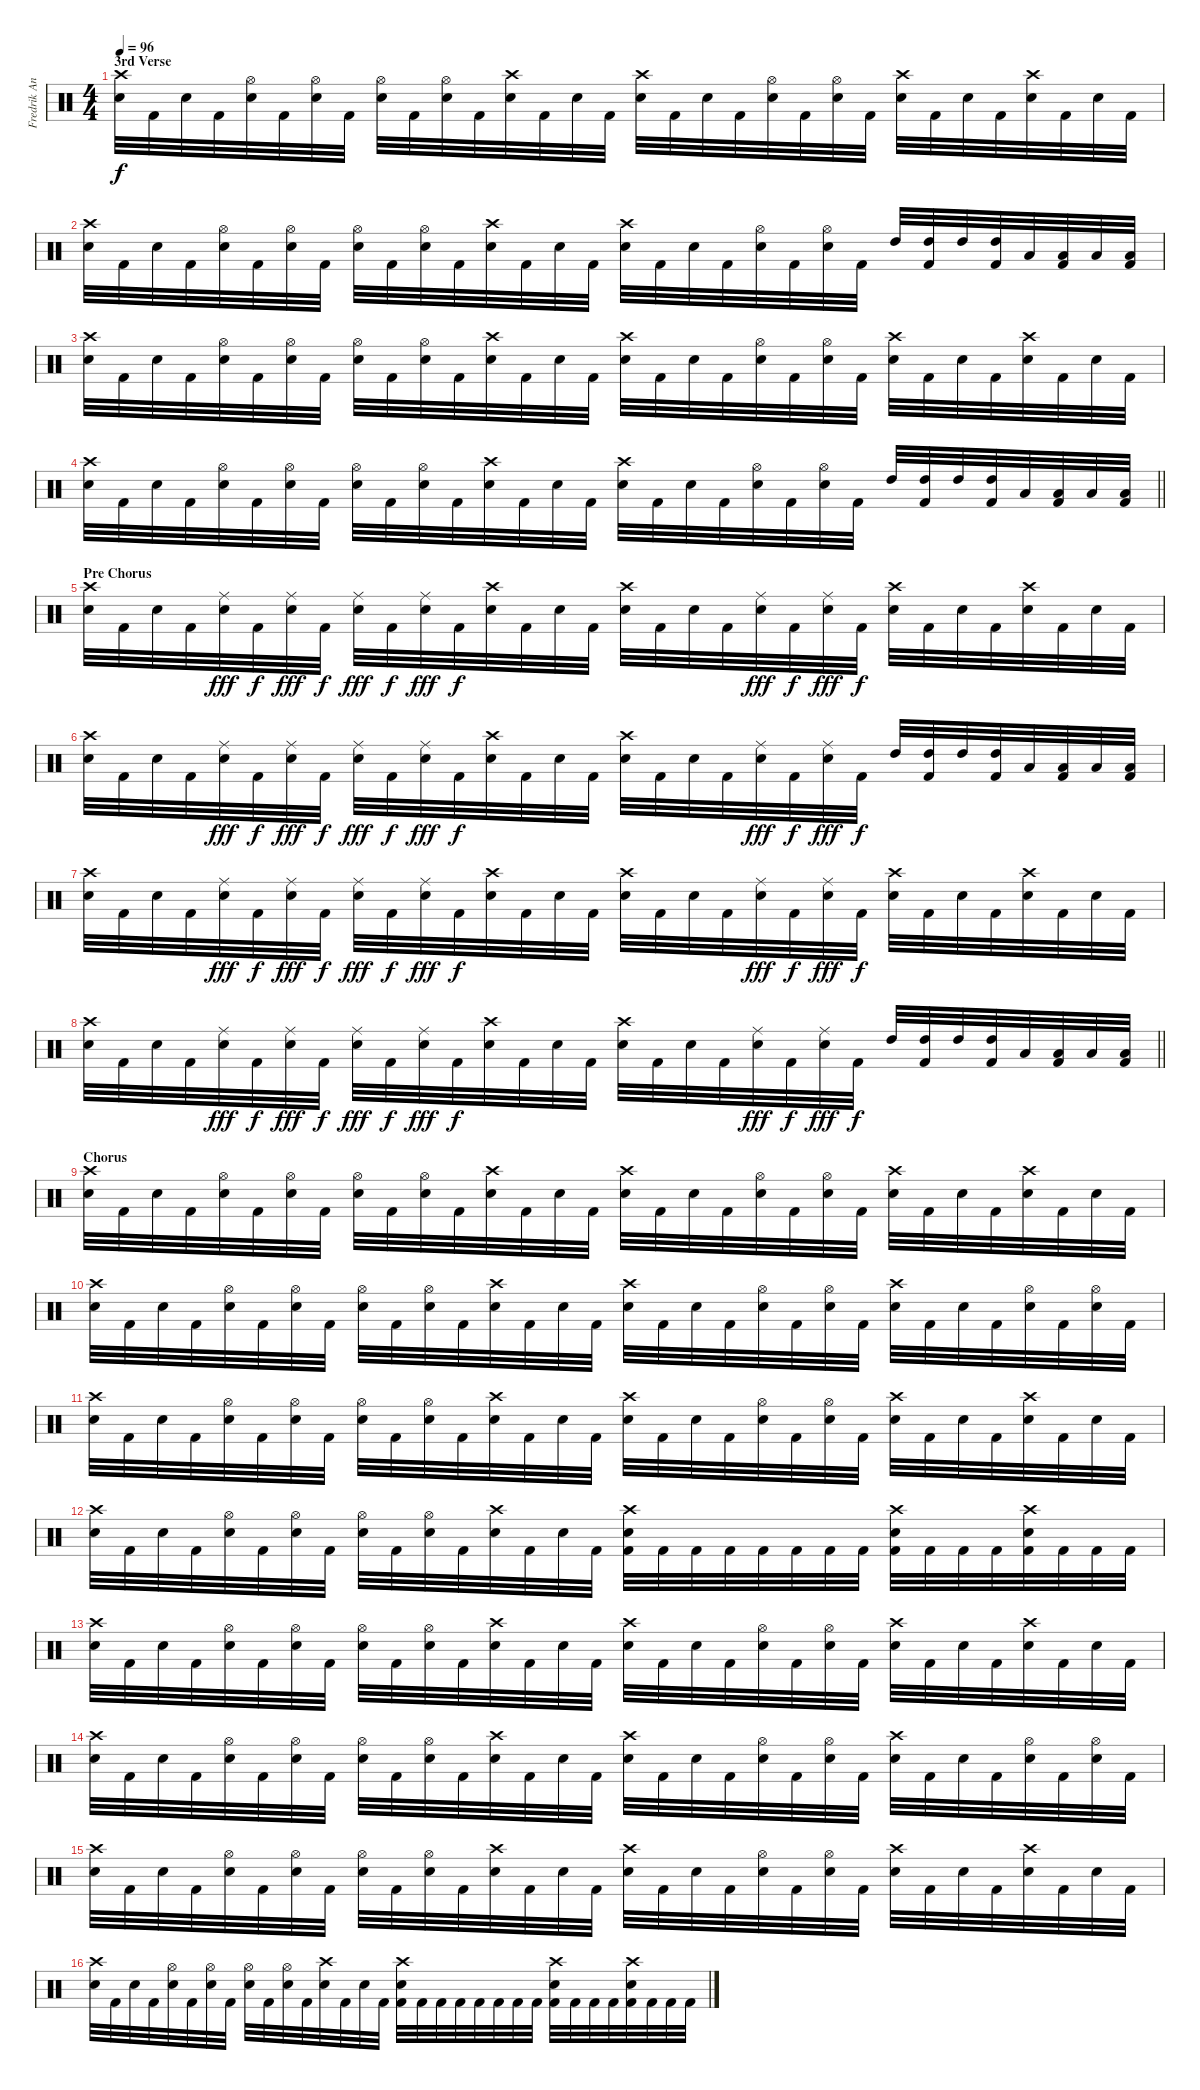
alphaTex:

\track ("Fredrik Andersson" "Fredrik An") {instrument percussion}
\staff {score}
\articulation defaults
\ts (4 4)
\section ("" "3rd Verse")
\tempo 96
\clef neutral
\ks c
("Crash high (hit)" "Snare (hit) 2").32{dy f} "Kick (hit) 2".32 "Snare (hit) 2".32 "Kick (hit) 2".32 ("Hi-Hat (open)" "Snare (hit) 2").32 "Kick (hit) 2".32 ("Hi-Hat (open)" "Snare (hit) 2").32 "Kick (hit) 2".32 ("Hi-Hat (open)" "Snare (hit) 2").32 "Kick (hit) 2".32 ("Hi-Hat (open)" "Snare (hit) 2").32 "Kick (hit) 2".32 ("Crash high (hit)" "Snare (hit) 2").32 "Kick (hit) 2".32 "Snare (hit) 2".32 "Kick (hit) 2".32 ("Crash high (hit)" "Snare (hit) 2").32 "Kick (hit) 2".32 "Snare (hit) 2".32 "Kick (hit) 2".32 ("Hi-Hat (open)" "Snare (hit) 2").32 "Kick (hit) 2".32 ("Hi-Hat (open)" "Snare (hit) 2").32 "Kick (hit) 2".32 ("Crash high (hit)" "Snare (hit) 2").32 "Kick (hit) 2".32 "Snare (hit) 2".32 "Kick (hit) 2".32 ("Crash high (hit)" "Snare (hit) 2").32 "Kick (hit) 2".32 "Snare (hit) 2".32 "Kick (hit) 2".32 |
("Crash high (hit)" "Snare (hit) 2").32 "Kick (hit) 2".32 "Snare (hit) 2".32 "Kick (hit) 2".32 ("Hi-Hat (open)" "Snare (hit) 2").32 "Kick (hit) 2".32 ("Hi-Hat (open)" "Snare (hit) 2").32 "Kick (hit) 2".32 ("Hi-Hat (open)" "Snare (hit) 2").32 "Kick (hit) 2".32 ("Hi-Hat (open)" "Snare (hit) 2").32 "Kick (hit) 2".32 ("Crash high (hit)" "Snare (hit) 2").32 "Kick (hit) 2".32 "Snare (hit) 2".32 "Kick (hit) 2".32 ("Crash high (hit)" "Snare (hit) 2").32 "Kick (hit) 2".32 "Snare (hit) 2".32 "Kick (hit) 2".32 ("Hi-Hat (open)" "Snare (hit) 2").32 "Kick (hit) 2".32 ("Hi-Hat (open)" "Snare (hit) 2").32 "Kick (hit) 2".32 "High Tom (hit)".32 ("High Tom (hit)" "Kick (hit) 2").32 "High Tom (hit)".32 ("High Tom (hit)" "Kick (hit) 2").32 "Low Tom (hit)".32 ("Low Tom (hit)" "Kick (hit) 2").32 "Low Tom (hit)".32 ("Low Tom (hit)" "Kick (hit) 2").32 |
("Crash high (hit)" "Snare (hit) 2").32 "Kick (hit) 2".32 "Snare (hit) 2".32 "Kick (hit) 2".32 ("Hi-Hat (open)" "Snare (hit) 2").32 "Kick (hit) 2".32 ("Hi-Hat (open)" "Snare (hit) 2").32 "Kick (hit) 2".32 ("Hi-Hat (open)" "Snare (hit) 2").32 "Kick (hit) 2".32 ("Hi-Hat (open)" "Snare (hit) 2").32 "Kick (hit) 2".32 ("Crash high (hit)" "Snare (hit) 2").32 "Kick (hit) 2".32 "Snare (hit) 2".32 "Kick (hit) 2".32 ("Crash high (hit)" "Snare (hit) 2").32 "Kick (hit) 2".32 "Snare (hit) 2".32 "Kick (hit) 2".32 ("Hi-Hat (open)" "Snare (hit) 2").32 "Kick (hit) 2".32 ("Hi-Hat (open)" "Snare (hit) 2").32 "Kick (hit) 2".32 ("Crash high (hit)" "Snare (hit) 2").32 "Kick (hit) 2".32 "Snare (hit) 2".32 "Kick (hit) 2".32 ("Crash high (hit)" "Snare (hit) 2").32 "Kick (hit) 2".32 "Snare (hit) 2".32 "Kick (hit) 2".32 |
\barLineRight lightlight
("Crash high (hit)" "Snare (hit) 2").32 "Kick (hit) 2".32 "Snare (hit) 2".32 "Kick (hit) 2".32 ("Hi-Hat (open)" "Snare (hit) 2").32 "Kick (hit) 2".32 ("Hi-Hat (open)" "Snare (hit) 2").32 "Kick (hit) 2".32 ("Hi-Hat (open)" "Snare (hit) 2").32 "Kick (hit) 2".32 ("Hi-Hat (open)" "Snare (hit) 2").32 "Kick (hit) 2".32 ("Crash high (hit)" "Snare (hit) 2").32 "Kick (hit) 2".32 "Snare (hit) 2".32 "Kick (hit) 2".32 ("Crash high (hit)" "Snare (hit) 2").32 "Kick (hit) 2".32 "Snare (hit) 2".32 "Kick (hit) 2".32 ("Hi-Hat (open)" "Snare (hit) 2").32 "Kick (hit) 2".32 ("Hi-Hat (open)" "Snare (hit) 2").32 "Kick (hit) 2".32 "High Tom (hit)".32 ("High Tom (hit)" "Kick (hit) 2").32 "High Tom (hit)".32 ("High Tom (hit)" "Kick (hit) 2").32 "Low Tom (hit)".32 ("Low Tom (hit)" "Kick (hit) 2").32 "Low Tom (hit)".32 ("Low Tom (hit)" "Kick (hit) 2").32 |
\section ("" "Pre Chorus")
("Crash high (hit)" "Snare (hit) 2").32 "Kick (hit) 2".32 "Snare (hit) 2".32 "Kick (hit) 2".32 ("Ride (middle)" "Snare (hit) 2").32{dy fff} "Kick (hit) 2".32{dy f} ("Ride (middle)" "Snare (hit) 2").32{dy fff} "Kick (hit) 2".32{dy f} ("Ride (middle)" "Snare (hit) 2").32{dy fff} "Kick (hit) 2".32{dy f} ("Ride (middle)" "Snare (hit) 2").32{dy fff} "Kick (hit) 2".32{dy f} ("Crash high (hit)" "Snare (hit) 2").32 "Kick (hit) 2".32 "Snare (hit) 2".32 "Kick (hit) 2".32 ("Crash high (hit)" "Snare (hit) 2").32 "Kick (hit) 2".32 "Snare (hit) 2".32 "Kick (hit) 2".32 ("Ride (middle)" "Snare (hit) 2").32{dy fff} "Kick (hit) 2".32{dy f} ("Ride (middle)" "Snare (hit) 2").32{dy fff} "Kick (hit) 2".32{dy f} ("Crash high (hit)" "Snare (hit) 2").32 "Kick (hit) 2".32 "Snare (hit) 2".32 "Kick (hit) 2".32 ("Crash high (hit)" "Snare (hit) 2").32 "Kick (hit) 2".32 "Snare (hit) 2".32 "Kick (hit) 2".32 |
("Crash high (hit)" "Snare (hit) 2").32 "Kick (hit) 2".32 "Snare (hit) 2".32 "Kick (hit) 2".32 ("Ride (middle)" "Snare (hit) 2").32{dy fff} "Kick (hit) 2".32{dy f} ("Ride (middle)" "Snare (hit) 2").32{dy fff} "Kick (hit) 2".32{dy f} ("Ride (middle)" "Snare (hit) 2").32{dy fff} "Kick (hit) 2".32{dy f} ("Ride (middle)" "Snare (hit) 2").32{dy fff} "Kick (hit) 2".32{dy f} ("Crash high (hit)" "Snare (hit) 2").32 "Kick (hit) 2".32 "Snare (hit) 2".32 "Kick (hit) 2".32 ("Crash high (hit)" "Snare (hit) 2").32 "Kick (hit) 2".32 "Snare (hit) 2".32 "Kick (hit) 2".32 ("Ride (middle)" "Snare (hit) 2").32{dy fff} "Kick (hit) 2".32{dy f} ("Ride (middle)" "Snare (hit) 2").32{dy fff} "Kick (hit) 2".32{dy f} "High Tom (hit)".32 ("High Tom (hit)" "Kick (hit) 2").32 "High Tom (hit)".32 ("High Tom (hit)" "Kick (hit) 2").32 "Low Tom (hit)".32 ("Low Tom (hit)" "Kick (hit) 2").32 "Low Tom (hit)".32 ("Low Tom (hit)" "Kick (hit) 2").32 |
("Crash high (hit)" "Snare (hit) 2").32 "Kick (hit) 2".32 "Snare (hit) 2".32 "Kick (hit) 2".32 ("Ride (middle)" "Snare (hit) 2").32{dy fff} "Kick (hit) 2".32{dy f} ("Ride (middle)" "Snare (hit) 2").32{dy fff} "Kick (hit) 2".32{dy f} ("Ride (middle)" "Snare (hit) 2").32{dy fff} "Kick (hit) 2".32{dy f} ("Ride (middle)" "Snare (hit) 2").32{dy fff} "Kick (hit) 2".32{dy f} ("Crash high (hit)" "Snare (hit) 2").32 "Kick (hit) 2".32 "Snare (hit) 2".32 "Kick (hit) 2".32 ("Crash high (hit)" "Snare (hit) 2").32 "Kick (hit) 2".32 "Snare (hit) 2".32 "Kick (hit) 2".32 ("Ride (middle)" "Snare (hit) 2").32{dy fff} "Kick (hit) 2".32{dy f} ("Ride (middle)" "Snare (hit) 2").32{dy fff} "Kick (hit) 2".32{dy f} ("Crash high (hit)" "Snare (hit) 2").32 "Kick (hit) 2".32 "Snare (hit) 2".32 "Kick (hit) 2".32 ("Crash high (hit)" "Snare (hit) 2").32 "Kick (hit) 2".32 "Snare (hit) 2".32 "Kick (hit) 2".32 |
\barLineRight lightlight
("Crash high (hit)" "Snare (hit) 2").32 "Kick (hit) 2".32 "Snare (hit) 2".32 "Kick (hit) 2".32 ("Ride (middle)" "Snare (hit) 2").32{dy fff} "Kick (hit) 2".32{dy f} ("Ride (middle)" "Snare (hit) 2").32{dy fff} "Kick (hit) 2".32{dy f} ("Ride (middle)" "Snare (hit) 2").32{dy fff} "Kick (hit) 2".32{dy f} ("Ride (middle)" "Snare (hit) 2").32{dy fff} "Kick (hit) 2".32{dy f} ("Crash high (hit)" "Snare (hit) 2").32 "Kick (hit) 2".32 "Snare (hit) 2".32 "Kick (hit) 2".32 ("Crash high (hit)" "Snare (hit) 2").32 "Kick (hit) 2".32 "Snare (hit) 2".32 "Kick (hit) 2".32 ("Ride (middle)" "Snare (hit) 2").32{dy fff} "Kick (hit) 2".32{dy f} ("Ride (middle)" "Snare (hit) 2").32{dy fff} "Kick (hit) 2".32{dy f} "High Tom (hit)".32 ("High Tom (hit)" "Kick (hit) 2").32 "High Tom (hit)".32 ("High Tom (hit)" "Kick (hit) 2").32 "Low Tom (hit)".32 ("Low Tom (hit)" "Kick (hit) 2").32 "Low Tom (hit)".32 ("Low Tom (hit)" "Kick (hit) 2").32 |
\section ("" "Chorus")
("Crash high (hit)" "Snare (hit) 2").32 "Kick (hit) 2".32 "Snare (hit) 2".32 "Kick (hit) 2".32 ("Hi-Hat (open)" "Snare (hit) 2").32 "Kick (hit) 2".32 ("Hi-Hat (open)" "Snare (hit) 2").32 "Kick (hit) 2".32 ("Hi-Hat (open)" "Snare (hit) 2").32 "Kick (hit) 2".32 ("Hi-Hat (open)" "Snare (hit) 2").32 "Kick (hit) 2".32 ("Crash high (hit)" "Snare (hit) 2").32 "Kick (hit) 2".32 "Snare (hit) 2".32 "Kick (hit) 2".32 ("Crash high (hit)" "Snare (hit) 2").32 "Kick (hit) 2".32 "Snare (hit) 2".32 "Kick (hit) 2".32 ("Hi-Hat (open)" "Snare (hit) 2").32 "Kick (hit) 2".32 ("Hi-Hat (open)" "Snare (hit) 2").32 "Kick (hit) 2".32 ("Crash high (hit)" "Snare (hit) 2").32 "Kick (hit) 2".32 "Snare (hit) 2".32 "Kick (hit) 2".32 ("Crash high (hit)" "Snare (hit) 2").32 "Kick (hit) 2".32 "Snare (hit) 2".32 "Kick (hit) 2".32 |
("Crash high (hit)" "Snare (hit) 2").32 "Kick (hit) 2".32 "Snare (hit) 2".32 "Kick (hit) 2".32 ("Hi-Hat (open)" "Snare (hit) 2").32 "Kick (hit) 2".32 ("Hi-Hat (open)" "Snare (hit) 2").32 "Kick (hit) 2".32 ("Hi-Hat (open)" "Snare (hit) 2").32 "Kick (hit) 2".32 ("Hi-Hat (open)" "Snare (hit) 2").32 "Kick (hit) 2".32 ("Crash high (hit)" "Snare (hit) 2").32 "Kick (hit) 2".32 "Snare (hit) 2".32 "Kick (hit) 2".32 ("Crash high (hit)" "Snare (hit) 2").32 "Kick (hit) 2".32 "Snare (hit) 2".32 "Kick (hit) 2".32 ("Hi-Hat (open)" "Snare (hit) 2").32 "Kick (hit) 2".32 ("Hi-Hat (open)" "Snare (hit) 2").32 "Kick (hit) 2".32 ("Crash high (hit)" "Snare (hit) 2").32 "Kick (hit) 2".32 "Snare (hit) 2".32 "Kick (hit) 2".32 ("Hi-Hat (open)" "Snare (hit) 2").32 "Kick (hit) 2".32 ("Hi-Hat (open)" "Snare (hit) 2").32 "Kick (hit) 2".32 |
("Crash high (hit)" "Snare (hit) 2").32 "Kick (hit) 2".32 "Snare (hit) 2".32 "Kick (hit) 2".32 ("Hi-Hat (open)" "Snare (hit) 2").32 "Kick (hit) 2".32 ("Hi-Hat (open)" "Snare (hit) 2").32 "Kick (hit) 2".32 ("Hi-Hat (open)" "Snare (hit) 2").32 "Kick (hit) 2".32 ("Hi-Hat (open)" "Snare (hit) 2").32 "Kick (hit) 2".32 ("Crash high (hit)" "Snare (hit) 2").32 "Kick (hit) 2".32 "Snare (hit) 2".32 "Kick (hit) 2".32 ("Crash high (hit)" "Snare (hit) 2").32 "Kick (hit) 2".32 "Snare (hit) 2".32 "Kick (hit) 2".32 ("Hi-Hat (open)" "Snare (hit) 2").32 "Kick (hit) 2".32 ("Hi-Hat (open)" "Snare (hit) 2").32 "Kick (hit) 2".32 ("Crash high (hit)" "Snare (hit) 2").32 "Kick (hit) 2".32 "Snare (hit) 2".32 "Kick (hit) 2".32 ("Crash high (hit)" "Snare (hit) 2").32 "Kick (hit) 2".32 "Snare (hit) 2".32 "Kick (hit) 2".32 |
("Crash high (hit)" "Snare (hit) 2").32 "Kick (hit) 2".32 "Snare (hit) 2".32 "Kick (hit) 2".32 ("Hi-Hat (open)" "Snare (hit) 2").32 "Kick (hit) 2".32 ("Hi-Hat (open)" "Snare (hit) 2").32 "Kick (hit) 2".32 ("Hi-Hat (open)" "Snare (hit) 2").32 "Kick (hit) 2".32 ("Hi-Hat (open)" "Snare (hit) 2").32 "Kick (hit) 2".32 ("Crash high (hit)" "Snare (hit) 2").32 "Kick (hit) 2".32 "Snare (hit) 2".32 "Kick (hit) 2".32 ("Crash high (hit)" "Snare (hit) 2" "Kick (hit) 2").32 "Kick (hit) 2".32 "Kick (hit) 2".32 "Kick (hit) 2".32 "Kick (hit) 2".32 "Kick (hit) 2".32 "Kick (hit) 2".32 "Kick (hit) 2".32 ("Crash high (hit)" "Snare (hit) 2" "Kick (hit) 2").32 "Kick (hit) 2".32 "Kick (hit) 2".32 "Kick (hit) 2".32 ("Crash high (hit)" "Snare (hit) 2" "Kick (hit) 2").32 "Kick (hit) 2".32 "Kick (hit) 2".32 "Kick (hit) 2".32 |
("Crash high (hit)" "Snare (hit) 2").32 "Kick (hit) 2".32 "Snare (hit) 2".32 "Kick (hit) 2".32 ("Hi-Hat (open)" "Snare (hit) 2").32 "Kick (hit) 2".32 ("Hi-Hat (open)" "Snare (hit) 2").32 "Kick (hit) 2".32 ("Hi-Hat (open)" "Snare (hit) 2").32 "Kick (hit) 2".32 ("Hi-Hat (open)" "Snare (hit) 2").32 "Kick (hit) 2".32 ("Crash high (hit)" "Snare (hit) 2").32 "Kick (hit) 2".32 "Snare (hit) 2".32 "Kick (hit) 2".32 ("Crash high (hit)" "Snare (hit) 2").32 "Kick (hit) 2".32 "Snare (hit) 2".32 "Kick (hit) 2".32 ("Hi-Hat (open)" "Snare (hit) 2").32 "Kick (hit) 2".32 ("Hi-Hat (open)" "Snare (hit) 2").32 "Kick (hit) 2".32 ("Crash high (hit)" "Snare (hit) 2").32 "Kick (hit) 2".32 "Snare (hit) 2".32 "Kick (hit) 2".32 ("Crash high (hit)" "Snare (hit) 2").32 "Kick (hit) 2".32 "Snare (hit) 2".32 "Kick (hit) 2".32 |
("Crash high (hit)" "Snare (hit) 2").32 "Kick (hit) 2".32 "Snare (hit) 2".32 "Kick (hit) 2".32 ("Hi-Hat (open)" "Snare (hit) 2").32 "Kick (hit) 2".32 ("Hi-Hat (open)" "Snare (hit) 2").32 "Kick (hit) 2".32 ("Hi-Hat (open)" "Snare (hit) 2").32 "Kick (hit) 2".32 ("Hi-Hat (open)" "Snare (hit) 2").32 "Kick (hit) 2".32 ("Crash high (hit)" "Snare (hit) 2").32 "Kick (hit) 2".32 "Snare (hit) 2".32 "Kick (hit) 2".32 ("Crash high (hit)" "Snare (hit) 2").32 "Kick (hit) 2".32 "Snare (hit) 2".32 "Kick (hit) 2".32 ("Hi-Hat (open)" "Snare (hit) 2").32 "Kick (hit) 2".32 ("Hi-Hat (open)" "Snare (hit) 2").32 "Kick (hit) 2".32 ("Crash high (hit)" "Snare (hit) 2").32 "Kick (hit) 2".32 "Snare (hit) 2".32 "Kick (hit) 2".32 ("Hi-Hat (open)" "Snare (hit) 2").32 "Kick (hit) 2".32 ("Hi-Hat (open)" "Snare (hit) 2").32 "Kick (hit) 2".32 |
("Crash high (hit)" "Snare (hit) 2").32 "Kick (hit) 2".32 "Snare (hit) 2".32 "Kick (hit) 2".32 ("Hi-Hat (open)" "Snare (hit) 2").32 "Kick (hit) 2".32 ("Hi-Hat (open)" "Snare (hit) 2").32 "Kick (hit) 2".32 ("Hi-Hat (open)" "Snare (hit) 2").32 "Kick (hit) 2".32 ("Hi-Hat (open)" "Snare (hit) 2").32 "Kick (hit) 2".32 ("Crash high (hit)" "Snare (hit) 2").32 "Kick (hit) 2".32 "Snare (hit) 2".32 "Kick (hit) 2".32 ("Crash high (hit)" "Snare (hit) 2").32 "Kick (hit) 2".32 "Snare (hit) 2".32 "Kick (hit) 2".32 ("Hi-Hat (open)" "Snare (hit) 2").32 "Kick (hit) 2".32 ("Hi-Hat (open)" "Snare (hit) 2").32 "Kick (hit) 2".32 ("Crash high (hit)" "Snare (hit) 2").32 "Kick (hit) 2".32 "Snare (hit) 2".32 "Kick (hit) 2".32 ("Crash high (hit)" "Snare (hit) 2").32 "Kick (hit) 2".32 "Snare (hit) 2".32 "Kick (hit) 2".32 |
("Crash high (hit)" "Snare (hit) 2").32 "Kick (hit) 2".32 "Snare (hit) 2".32 "Kick (hit) 2".32 ("Hi-Hat (open)" "Snare (hit) 2").32 "Kick (hit) 2".32 ("Hi-Hat (open)" "Snare (hit) 2").32 "Kick (hit) 2".32 ("Hi-Hat (open)" "Snare (hit) 2").32 "Kick (hit) 2".32 ("Hi-Hat (open)" "Snare (hit) 2").32 "Kick (hit) 2".32 ("Crash high (hit)" "Snare (hit) 2").32 "Kick (hit) 2".32 "Snare (hit) 2".32 "Kick (hit) 2".32 ("Crash high (hit)" "Snare (hit) 2" "Kick (hit) 2").32 "Kick (hit) 2".32 "Kick (hit) 2".32 "Kick (hit) 2".32 "Kick (hit) 2".32 "Kick (hit) 2".32 "Kick (hit) 2".32 "Kick (hit) 2".32 ("Crash high (hit)" "Snare (hit) 2" "Kick (hit) 2").32 "Kick (hit) 2".32 "Kick (hit) 2".32 "Kick (hit) 2".32 ("Crash high (hit)" "Snare (hit) 2" "Kick (hit) 2").32 "Kick (hit) 2".32 "Kick (hit) 2".32 "Kick (hit) 2".32
